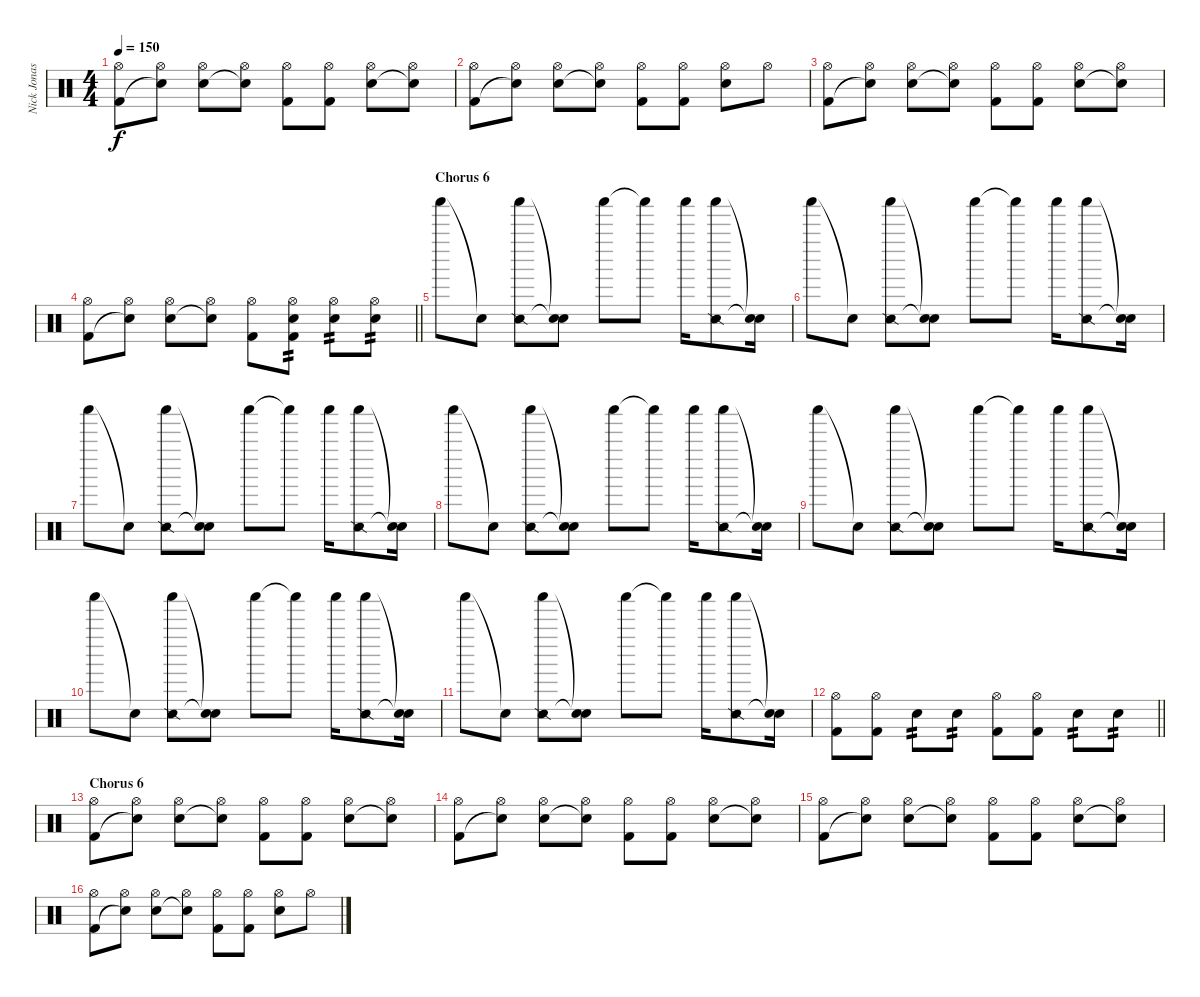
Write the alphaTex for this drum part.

\track ("Nick Jonas Drums" "Nick Jonas") {instrument percussion}
\staff {score}
\articulation defaults
\ts (4 4)
\tempo 150
\clef neutral
\ks c
("Hi-Hat (open)" "Kick (hit) 2").8{dy f} ("Hi-Hat (open)" "Snare (hit)"{t}).8 ("Hi-Hat (open)" "Electric Snare (hit)").8 ("Hi-Hat (open)" "Snare (hit)"{t}).8 ("Hi-Hat (open)" "Kick (hit) 2").8 ("Hi-Hat (open)" "Kick (hit) 2").8 ("Hi-Hat (open)" "Electric Snare (hit)").8 ("Hi-Hat (open)" "Snare (hit)"{t}).8 |
("Hi-Hat (open)" "Kick (hit) 2").8 ("Hi-Hat (open)" "Snare (hit)"{t}).8 ("Hi-Hat (open)" "Electric Snare (hit)").8 ("Hi-Hat (open)" "Snare (hit)"{t}).8 ("Hi-Hat (open)" "Kick (hit) 2").8 ("Hi-Hat (open)" "Kick (hit) 2").8 ("Hi-Hat (open)" "Electric Snare (hit)").8 "Hi-Hat (open)".8 |
("Hi-Hat (open)" "Kick (hit) 2").8 ("Hi-Hat (open)" "Snare (hit)"{t}).8 ("Hi-Hat (open)" "Electric Snare (hit)").8 ("Hi-Hat (open)" "Snare (hit)"{t}).8 ("Hi-Hat (open)" "Kick (hit) 2").8 ("Hi-Hat (open)" "Kick (hit) 2").8 ("Hi-Hat (open)" "Electric Snare (hit)").8 ("Hi-Hat (open)" "Snare (hit)"{t}).8 |
\barLineRight lightlight
("Hi-Hat (open)" "Kick (hit) 2").8 ("Hi-Hat (open)" "Snare (hit)"{t}).8 ("Hi-Hat (open)" "Electric Snare (hit)").8 ("Hi-Hat (open)" "Snare (hit)"{t}).8 ("Hi-Hat (open)" "Kick (hit) 2").8 ("Hi-Hat (open)" "Electric Snare (hit)" "Kick (hit) 2").8{tp 2} ("Hi-Hat (open)" "Electric Snare (hit)").8{tp 2} ("Hi-Hat (open)" "Electric Snare (hit)").8{tp 2} |
\section ("" "Chorus 6")
"Shaker (hit)".8 "Snare (hit)"{t}.8 ("Snare (side stick) 2" "Shaker (hit)").8 ("Snare (hit)"{t} "Snare (hit)"{t}).8 "Shaker (hit)".8 "Shaker (hit)"{t}.8 "Shaker (hit)".16 ("Snare (side stick) 2" "Shaker (hit)").8 ("Snare (hit)"{t} "Snare (hit)"{t}).16 |
"Shaker (hit)".8 "Snare (hit)"{t}.8 ("Snare (side stick) 2" "Shaker (hit)").8 ("Snare (hit)"{t} "Snare (hit)"{t}).8 "Shaker (hit)".8 "Shaker (hit)"{t}.8 "Shaker (hit)".16 ("Snare (side stick) 2" "Shaker (hit)").8 ("Snare (hit)"{t} "Snare (hit)"{t}).16 |
"Shaker (hit)".8 "Snare (hit)"{t}.8 ("Snare (side stick) 2" "Shaker (hit)").8 ("Snare (hit)"{t} "Snare (hit)"{t}).8 "Shaker (hit)".8 "Shaker (hit)"{t}.8 "Shaker (hit)".16 ("Snare (side stick) 2" "Shaker (hit)").8 ("Snare (hit)"{t} "Snare (hit)"{t}).16 |
"Shaker (hit)".8 "Snare (hit)"{t}.8 ("Snare (side stick) 2" "Shaker (hit)").8 ("Snare (hit)"{t} "Snare (hit)"{t}).8 "Shaker (hit)".8 "Shaker (hit)"{t}.8 "Shaker (hit)".16 ("Snare (side stick) 2" "Shaker (hit)").8 ("Snare (hit)"{t} "Snare (hit)"{t}).16 |
"Shaker (hit)".8 "Snare (hit)"{t}.8 ("Snare (side stick) 2" "Shaker (hit)").8 ("Snare (hit)"{t} "Snare (hit)"{t}).8 "Shaker (hit)".8 "Shaker (hit)"{t}.8 "Shaker (hit)".16 ("Snare (side stick) 2" "Shaker (hit)").8 ("Snare (hit)"{t} "Snare (hit)"{t}).16 |
"Shaker (hit)".8 "Snare (hit)"{t}.8 ("Snare (side stick) 2" "Shaker (hit)").8 ("Snare (hit)"{t} "Snare (hit)"{t}).8 "Shaker (hit)".8 "Shaker (hit)"{t}.8 "Shaker (hit)".16 ("Snare (side stick) 2" "Shaker (hit)").8 ("Snare (hit)"{t} "Snare (hit)"{t}).16 |
"Shaker (hit)".8 "Snare (hit)"{t}.8 ("Snare (side stick) 2" "Shaker (hit)").8 ("Snare (hit)"{t} "Snare (hit)"{t}).8 "Shaker (hit)".8 "Shaker (hit)"{t}.8 "Shaker (hit)".16 ("Snare (side stick) 2" "Shaker (hit)").8 ("Snare (hit)"{t} "Snare (hit)"{t}).16 |
\barLineRight lightlight
("Hi-Hat (open)" "Kick (hit) 2").8 ("Hi-Hat (open)" "Kick (hit) 2").8 "Electric Snare (hit)".8{tp 2} "Electric Snare (hit)".8{tp 2} ("Hi-Hat (open)" "Kick (hit) 2").8 ("Hi-Hat (open)" "Kick (hit) 2").8 "Electric Snare (hit)".8{tp 2} "Electric Snare (hit)".8{tp 2} |
\section ("" "Chorus 6")
("Hi-Hat (open)" "Kick (hit) 2").8 ("Hi-Hat (open)" "Snare (hit)"{t}).8 ("Hi-Hat (open)" "Electric Snare (hit)").8 ("Hi-Hat (open)" "Snare (hit)"{t}).8 ("Hi-Hat (open)" "Kick (hit) 2").8 ("Hi-Hat (open)" "Kick (hit) 2").8 ("Hi-Hat (open)" "Electric Snare (hit)").8 ("Hi-Hat (open)" "Snare (hit)"{t}).8 |
("Hi-Hat (open)" "Kick (hit) 2").8 ("Hi-Hat (open)" "Snare (hit)"{t}).8 ("Hi-Hat (open)" "Electric Snare (hit)").8 ("Hi-Hat (open)" "Snare (hit)"{t}).8 ("Hi-Hat (open)" "Kick (hit) 2").8 ("Hi-Hat (open)" "Kick (hit) 2").8 ("Hi-Hat (open)" "Electric Snare (hit)").8 ("Hi-Hat (open)" "Snare (hit)"{t}).8 |
("Hi-Hat (open)" "Kick (hit) 2").8 ("Hi-Hat (open)" "Snare (hit)"{t}).8 ("Hi-Hat (open)" "Electric Snare (hit)").8 ("Hi-Hat (open)" "Snare (hit)"{t}).8 ("Hi-Hat (open)" "Kick (hit) 2").8 ("Hi-Hat (open)" "Kick (hit) 2").8 ("Hi-Hat (open)" "Electric Snare (hit)").8 ("Hi-Hat (open)" "Snare (hit)"{t}).8 |
("Hi-Hat (open)" "Kick (hit) 2").8 ("Hi-Hat (open)" "Snare (hit)"{t}).8 ("Hi-Hat (open)" "Electric Snare (hit)").8 ("Hi-Hat (open)" "Snare (hit)"{t}).8 ("Hi-Hat (open)" "Kick (hit) 2").8 ("Hi-Hat (open)" "Kick (hit) 2").8 ("Hi-Hat (open)" "Electric Snare (hit)").8 "Hi-Hat (open)".8
